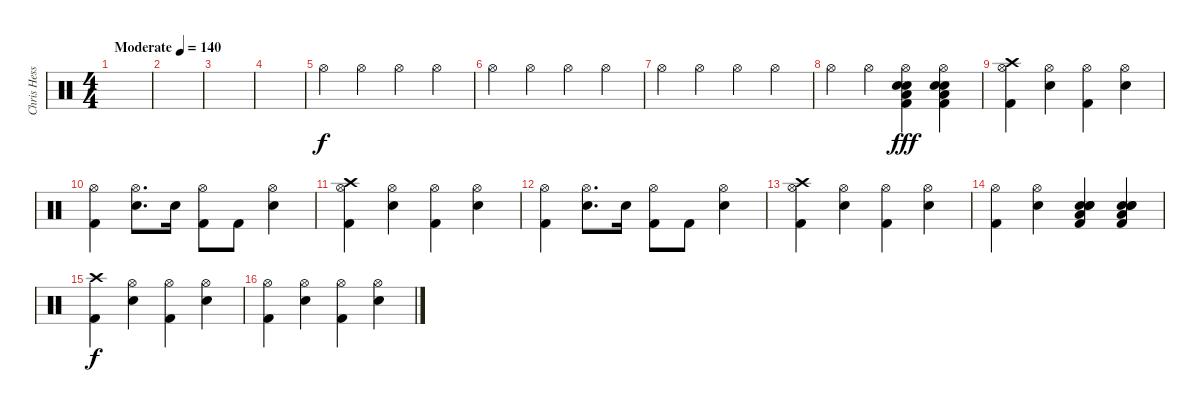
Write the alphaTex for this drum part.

\track ("Chris Hesse" "Chris Hess") {instrument percussion}
\staff {score}
\articulation defaults
\ts (4 4)
\tempo (140 "Moderate")
\clef neutral
\ks c
|
|
|
|
"Hi-Hat (open)".4 "Hi-Hat (open)".4 "Hi-Hat (open)".4 "Hi-Hat (open)".4 |
"Hi-Hat (open)".4 "Hi-Hat (open)".4 "Hi-Hat (open)".4 "Hi-Hat (open)".4 |
"Hi-Hat (open)".4 "Hi-Hat (open)".4 "Hi-Hat (open)".4 "Hi-Hat (open)".4 |
"Hi-Hat (open)".4 "Hi-Hat (open)".4 ("Hi-Hat (open)" "Kick (hit) 2" "Electric Snare (hit)" "Electric Snare (hit)" "Low Floor Tom (hit)").4{dy fff} ("Hi-Hat (open)" "Kick (hit) 2" "Electric Snare (hit)" "Electric Snare (hit)" "Low Floor Tom (hit)").4 |
("Kick (hit) 2" "Hi-Hat (open)" "Crash high (hit)").4 ("Electric Snare (hit)" "Hi-Hat (open)").4 ("Kick (hit) 2" "Hi-Hat (open)").4 ("Electric Snare (hit)" "Hi-Hat (open)").4 |
("Kick (hit) 2" "Hi-Hat (open)").4 ("Electric Snare (hit)" "Hi-Hat (open)").8{d} "Electric Snare (hit)".16 ("Kick (hit) 2" "Hi-Hat (open)").8 "Kick (hit) 2".8 ("Electric Snare (hit)" "Hi-Hat (open)").4 |
("Kick (hit) 2" "Hi-Hat (open)" "Crash high (hit)").4 ("Electric Snare (hit)" "Hi-Hat (open)").4 ("Kick (hit) 2" "Hi-Hat (open)").4 ("Electric Snare (hit)" "Hi-Hat (open)").4 |
("Kick (hit) 2" "Hi-Hat (open)").4 ("Electric Snare (hit)" "Hi-Hat (open)").8{d} "Electric Snare (hit)".16 ("Kick (hit) 2" "Hi-Hat (open)").8 "Kick (hit) 2".8 ("Electric Snare (hit)" "Hi-Hat (open)").4 |
("Kick (hit) 2" "Hi-Hat (open)" "Crash high (hit)").4 ("Electric Snare (hit)" "Hi-Hat (open)").4 ("Kick (hit) 2" "Hi-Hat (open)").4 ("Electric Snare (hit)" "Hi-Hat (open)").4 |
("Kick (hit) 2" "Hi-Hat (open)").4 ("Electric Snare (hit)" "Hi-Hat (open)").4 ("Low Floor Tom (hit)" "Electric Snare (hit)" "Electric Snare (hit)" "Electric Snare (hit)" "Kick (hit) 2").4 ("Low Floor Tom (hit)" "Electric Snare (hit)" "Electric Snare (hit)" "Electric Snare (hit)" "Kick (hit) 2").4 |
("Kick (hit) 2" "Crash high (hit)").4{dy f} ("Electric Snare (hit)" "Hi-Hat (open)").4 ("Kick (hit) 2" "Hi-Hat (open)").4 ("Electric Snare (hit)" "Hi-Hat (open)").4 |
("Kick (hit) 2" "Hi-Hat (open)").4 ("Electric Snare (hit)" "Hi-Hat (open)").4 ("Kick (hit) 2" "Hi-Hat (open)").4 ("Electric Snare (hit)" "Hi-Hat (open)").4
